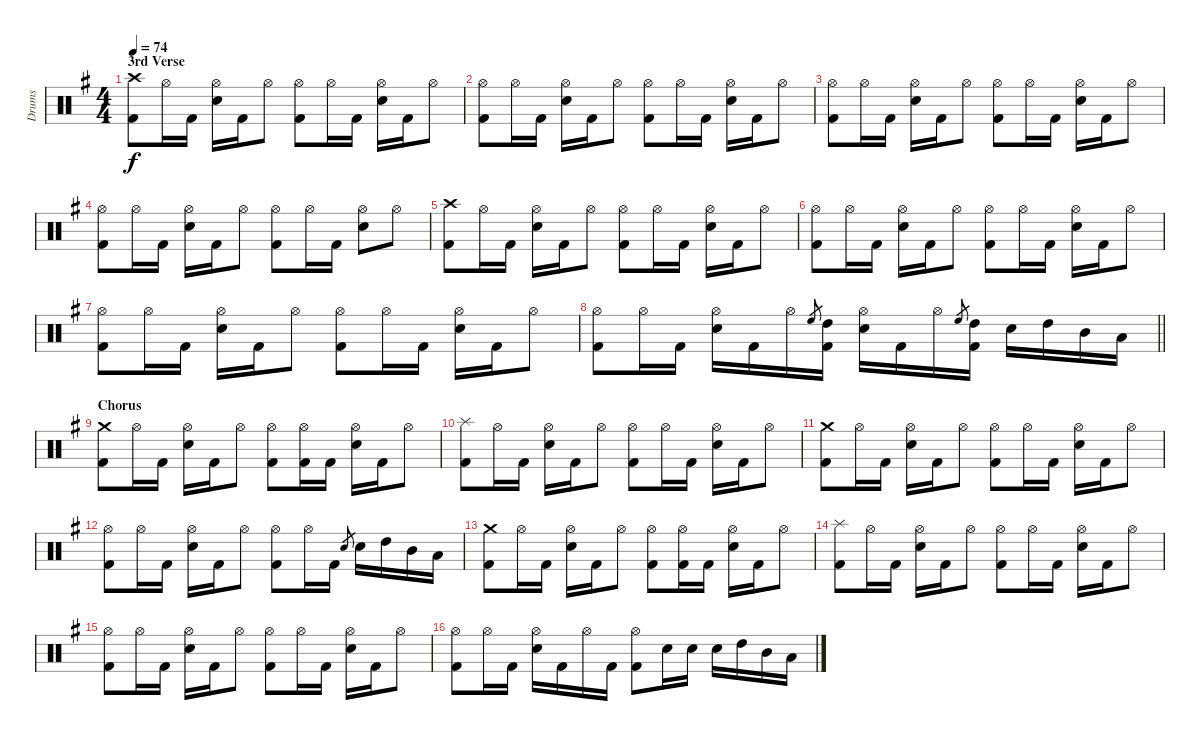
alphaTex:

\track ("Drums" "Drums") {instrument percussion}
\staff {score}
\articulation defaults
\ts (4 4)
\section ("" "3rd Verse")
\tempo 74
\clef neutral
\ks eminor
("Crash high (hit)" "Kick (hit) 2").8{dy f} "Hi-Hat (open)".16 "Kick (hit) 2".16 ("Hi-Hat (open)" "Electric Snare (hit)").16 "Kick (hit) 2".16 "Hi-Hat (open)".8 ("Hi-Hat (open)" "Kick (hit) 2").8 "Hi-Hat (open)".16 "Kick (hit) 2".16 ("Hi-Hat (open)" "Electric Snare (hit)").16 "Kick (hit) 2".16 "Hi-Hat (open)".8 |
("Hi-Hat (open)" "Kick (hit) 2").8 "Hi-Hat (open)".16 "Kick (hit) 2".16 ("Hi-Hat (open)" "Electric Snare (hit)").16 "Kick (hit) 2".16 "Hi-Hat (open)".8 ("Hi-Hat (open)" "Kick (hit) 2").8 "Hi-Hat (open)".16 "Kick (hit) 2".16 ("Hi-Hat (open)" "Electric Snare (hit)").16 "Kick (hit) 2".16 "Hi-Hat (open)".8 |
("Hi-Hat (open)" "Kick (hit) 2").8 "Hi-Hat (open)".16 "Kick (hit) 2".16 ("Hi-Hat (open)" "Electric Snare (hit)").16 "Kick (hit) 2".16 "Hi-Hat (open)".8 ("Hi-Hat (open)" "Kick (hit) 2").8 "Hi-Hat (open)".16 "Kick (hit) 2".16 ("Hi-Hat (open)" "Electric Snare (hit)").16 "Kick (hit) 2".16 "Hi-Hat (open)".8 |
("Hi-Hat (open)" "Kick (hit) 2").8 "Hi-Hat (open)".16 "Kick (hit) 2".16 ("Hi-Hat (open)" "Electric Snare (hit)").16 "Kick (hit) 2".16 "Hi-Hat (open)".8 ("Hi-Hat (open)" "Kick (hit) 2").8 "Hi-Hat (open)".16 "Kick (hit) 2".16 ("Hi-Hat (open)" "Electric Snare (hit)").8 "Hi-Hat (open)".8 |
("Crash high (hit)" "Kick (hit) 2").8 "Hi-Hat (open)".16 "Kick (hit) 2".16 ("Hi-Hat (open)" "Electric Snare (hit)").16 "Kick (hit) 2".16 "Hi-Hat (open)".8 ("Hi-Hat (open)" "Kick (hit) 2").8 "Hi-Hat (open)".16 "Kick (hit) 2".16 ("Hi-Hat (open)" "Electric Snare (hit)").16 "Kick (hit) 2".16 "Hi-Hat (open)".8 |
("Hi-Hat (open)" "Kick (hit) 2").8 "Hi-Hat (open)".16 "Kick (hit) 2".16 ("Hi-Hat (open)" "Electric Snare (hit)").16 "Kick (hit) 2".16 "Hi-Hat (open)".8 ("Hi-Hat (open)" "Kick (hit) 2").8 "Hi-Hat (open)".16 "Kick (hit) 2".16 ("Hi-Hat (open)" "Electric Snare (hit)").16 "Kick (hit) 2".16 "Hi-Hat (open)".8 |
("Hi-Hat (open)" "Kick (hit) 2").8 "Hi-Hat (open)".16 "Kick (hit) 2".16 ("Hi-Hat (open)" "Electric Snare (hit)").16 "Kick (hit) 2".16 "Hi-Hat (open)".8 ("Hi-Hat (open)" "Kick (hit) 2").8 "Hi-Hat (open)".16 "Kick (hit) 2".16 ("Hi-Hat (open)" "Electric Snare (hit)").16 "Kick (hit) 2".16 "Hi-Hat (open)".8 |
\barLineRight lightlight
("Hi-Hat (open)" "Kick (hit) 2").8 "Hi-Hat (open)".16 "Kick (hit) 2".16 ("Hi-Hat (open)" "Electric Snare (hit)").16 "Kick (hit) 2".16 "Hi-Hat (open)".16 "High Floor Tom (hit)".8{gr} ("High Tom (hit)" "Kick (hit) 2").16 ("Hi-Hat (open)" "Electric Snare (hit)").16 "Kick (hit) 2".16 "Hi-Hat (open)".16 "High Floor Tom (hit)".8{gr} ("High Tom (hit)" "Kick (hit) 2").16 "Electric Snare (hit)".16 "High Tom (hit)".16 "Mid Tom (hit)".16 "Low Tom (hit)".16 |
\section ("" "Chorus")
("Crash medium (hit)" "Kick (hit) 2").8 "Hi-Hat (open)".16 "Kick (hit) 2".16 ("Hi-Hat (open)" "Electric Snare (hit)").16 "Kick (hit) 2".16 "Hi-Hat (open)".8 ("Hi-Hat (open)" "Kick (hit) 2").8 ("Hi-Hat (open)" "Kick (hit) 2").16 "Kick (hit) 2".16 ("Hi-Hat (open)" "Electric Snare (hit)").16 "Kick (hit) 2".16 "Hi-Hat (open)".8 |
("Splash (hit)" "Kick (hit) 2").8 "Hi-Hat (open)".16 "Kick (hit) 2".16 ("Hi-Hat (open)" "Electric Snare (hit)").16 "Kick (hit) 2".16 "Hi-Hat (open)".8 ("Hi-Hat (open)" "Kick (hit) 2").8 "Hi-Hat (open)".16 "Kick (hit) 2".16 ("Hi-Hat (open)" "Electric Snare (hit)").16 "Kick (hit) 2".16 "Hi-Hat (open)".8 |
("Crash medium (hit)" "Kick (hit) 2").8 "Hi-Hat (open)".16 "Kick (hit) 2".16 ("Hi-Hat (open)" "Electric Snare (hit)").16 "Kick (hit) 2".16 "Hi-Hat (open)".8 ("Hi-Hat (open)" "Kick (hit) 2").8 "Hi-Hat (open)".16 "Kick (hit) 2".16 ("Hi-Hat (open)" "Electric Snare (hit)").16 "Kick (hit) 2".16 "Hi-Hat (open)".8 |
("Hi-Hat (open)" "Kick (hit) 2").8 "Hi-Hat (open)".16 "Kick (hit) 2".16 ("Hi-Hat (open)" "Electric Snare (hit)").16 "Kick (hit) 2".16 "Hi-Hat (open)".8 ("Hi-Hat (open)" "Kick (hit) 2").8 "Hi-Hat (open)".16 "Kick (hit) 2".16 "Electric Snare (hit)".8{gr} "Electric Snare (hit)".16 "High Tom (hit)".16 "Mid Tom (hit)".16 "Low Tom (hit)".16 |
("Crash medium (hit)" "Kick (hit) 2").8 "Hi-Hat (open)".16 "Kick (hit) 2".16 ("Hi-Hat (open)" "Electric Snare (hit)").16 "Kick (hit) 2".16 "Hi-Hat (open)".8 ("Hi-Hat (open)" "Kick (hit) 2").8 ("Hi-Hat (open)" "Kick (hit) 2").16 "Kick (hit) 2".16 ("Hi-Hat (open)" "Electric Snare (hit)").16 "Kick (hit) 2".16 "Hi-Hat (open)".8 |
("Splash (hit)" "Kick (hit) 2").8 "Hi-Hat (open)".16 "Kick (hit) 2".16 ("Hi-Hat (open)" "Electric Snare (hit)").16 "Kick (hit) 2".16 "Hi-Hat (open)".8 ("Hi-Hat (open)" "Kick (hit) 2").8 "Hi-Hat (open)".16 "Kick (hit) 2".16 ("Hi-Hat (open)" "Electric Snare (hit)").16 "Kick (hit) 2".16 "Hi-Hat (open)".8 |
("Hi-Hat (open)" "Kick (hit) 2").8 "Hi-Hat (open)".16 "Kick (hit) 2".16 ("Hi-Hat (open)" "Electric Snare (hit)").16 "Kick (hit) 2".16 "Hi-Hat (open)".8 ("Hi-Hat (open)" "Kick (hit) 2").8 "Hi-Hat (open)".16 "Kick (hit) 2".16 ("Hi-Hat (open)" "Electric Snare (hit)").16 "Kick (hit) 2".16 "Hi-Hat (open)".8 |
("Hi-Hat (open)" "Kick (hit) 2").8 "Hi-Hat (open)".16 "Kick (hit) 2".16 ("Hi-Hat (open)" "Electric Snare (hit)").16 "Kick (hit) 2".16 "Hi-Hat (open)".16 "Kick (hit) 2".16 ("Hi-Hat (open)" "Kick (hit) 2").8 "Electric Snare (hit)".16 "Electric Snare (hit)".16 "Electric Snare (hit)".16 "High Tom (hit)".16 "Mid Tom (hit)".16 "Low Tom (hit)".16
